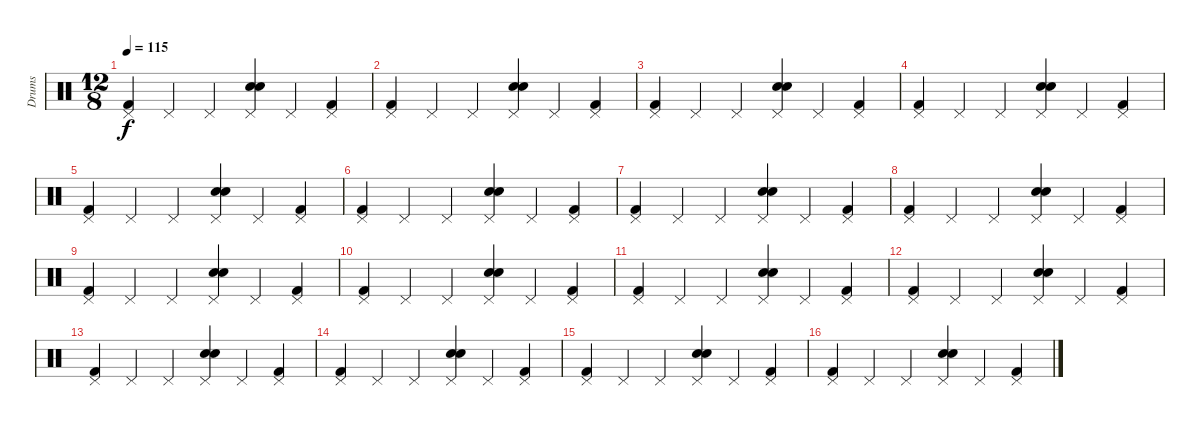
\track ("Drums" "Drums") {instrument percussion}
\staff {score}
\articulation defaults
\ts (12 8)
\tempo 115
\clef neutral
\ks c
("Kick (hit) 2" "Pedal Hi-Hat (hit)").4{dy f} "Pedal Hi-Hat (hit)".4 "Pedal Hi-Hat (hit)".4 ("Electric Snare (hit)" "Snare (hit) 2" "Pedal Hi-Hat (hit)").4 "Pedal Hi-Hat (hit)".4 ("Kick (hit) 2" "Pedal Hi-Hat (hit)").4 |
("Kick (hit) 2" "Pedal Hi-Hat (hit)").4 "Pedal Hi-Hat (hit)".4 "Pedal Hi-Hat (hit)".4 ("Electric Snare (hit)" "Snare (hit) 2" "Pedal Hi-Hat (hit)").4 "Pedal Hi-Hat (hit)".4 ("Kick (hit) 2" "Pedal Hi-Hat (hit)").4 |
("Kick (hit) 2" "Pedal Hi-Hat (hit)").4 "Pedal Hi-Hat (hit)".4 "Pedal Hi-Hat (hit)".4 ("Electric Snare (hit)" "Snare (hit) 2" "Pedal Hi-Hat (hit)").4 "Pedal Hi-Hat (hit)".4 ("Kick (hit) 2" "Pedal Hi-Hat (hit)").4 |
("Kick (hit) 2" "Pedal Hi-Hat (hit)").4 "Pedal Hi-Hat (hit)".4 "Pedal Hi-Hat (hit)".4 ("Electric Snare (hit)" "Snare (hit) 2" "Pedal Hi-Hat (hit)").4 "Pedal Hi-Hat (hit)".4 ("Kick (hit) 2" "Pedal Hi-Hat (hit)").4 |
("Kick (hit) 2" "Pedal Hi-Hat (hit)").4 "Pedal Hi-Hat (hit)".4 "Pedal Hi-Hat (hit)".4 ("Electric Snare (hit)" "Snare (hit) 2" "Pedal Hi-Hat (hit)").4 "Pedal Hi-Hat (hit)".4 ("Kick (hit) 2" "Pedal Hi-Hat (hit)").4 |
("Kick (hit) 2" "Pedal Hi-Hat (hit)").4 "Pedal Hi-Hat (hit)".4 "Pedal Hi-Hat (hit)".4 ("Electric Snare (hit)" "Snare (hit) 2" "Pedal Hi-Hat (hit)").4 "Pedal Hi-Hat (hit)".4 ("Kick (hit) 2" "Pedal Hi-Hat (hit)").4 |
("Kick (hit) 2" "Pedal Hi-Hat (hit)").4 "Pedal Hi-Hat (hit)".4 "Pedal Hi-Hat (hit)".4 ("Electric Snare (hit)" "Snare (hit) 2" "Pedal Hi-Hat (hit)").4 "Pedal Hi-Hat (hit)".4 ("Kick (hit) 2" "Pedal Hi-Hat (hit)").4 |
("Kick (hit) 2" "Pedal Hi-Hat (hit)").4 "Pedal Hi-Hat (hit)".4 "Pedal Hi-Hat (hit)".4 ("Electric Snare (hit)" "Snare (hit) 2" "Pedal Hi-Hat (hit)").4 "Pedal Hi-Hat (hit)".4 ("Kick (hit) 2" "Pedal Hi-Hat (hit)").4 |
("Kick (hit) 2" "Pedal Hi-Hat (hit)").4 "Pedal Hi-Hat (hit)".4 "Pedal Hi-Hat (hit)".4 ("Electric Snare (hit)" "Snare (hit) 2" "Pedal Hi-Hat (hit)").4 "Pedal Hi-Hat (hit)".4 ("Kick (hit) 2" "Pedal Hi-Hat (hit)").4 |
("Kick (hit) 2" "Pedal Hi-Hat (hit)").4 "Pedal Hi-Hat (hit)".4 "Pedal Hi-Hat (hit)".4 ("Electric Snare (hit)" "Snare (hit) 2" "Pedal Hi-Hat (hit)").4 "Pedal Hi-Hat (hit)".4 ("Kick (hit) 2" "Pedal Hi-Hat (hit)").4 |
("Kick (hit) 2" "Pedal Hi-Hat (hit)").4 "Pedal Hi-Hat (hit)".4 "Pedal Hi-Hat (hit)".4 ("Electric Snare (hit)" "Snare (hit) 2" "Pedal Hi-Hat (hit)").4 "Pedal Hi-Hat (hit)".4 ("Kick (hit) 2" "Pedal Hi-Hat (hit)").4 |
("Kick (hit) 2" "Pedal Hi-Hat (hit)").4 "Pedal Hi-Hat (hit)".4 "Pedal Hi-Hat (hit)".4 ("Electric Snare (hit)" "Snare (hit) 2" "Pedal Hi-Hat (hit)").4 "Pedal Hi-Hat (hit)".4 ("Kick (hit) 2" "Pedal Hi-Hat (hit)").4 |
("Kick (hit) 2" "Pedal Hi-Hat (hit)").4 "Pedal Hi-Hat (hit)".4 "Pedal Hi-Hat (hit)".4 ("Electric Snare (hit)" "Snare (hit) 2" "Pedal Hi-Hat (hit)").4 "Pedal Hi-Hat (hit)".4 ("Kick (hit) 2" "Pedal Hi-Hat (hit)").4 |
("Kick (hit) 2" "Pedal Hi-Hat (hit)").4 "Pedal Hi-Hat (hit)".4 "Pedal Hi-Hat (hit)".4 ("Electric Snare (hit)" "Snare (hit) 2" "Pedal Hi-Hat (hit)").4 "Pedal Hi-Hat (hit)".4 ("Kick (hit) 2" "Pedal Hi-Hat (hit)").4 |
("Kick (hit) 2" "Pedal Hi-Hat (hit)").4 "Pedal Hi-Hat (hit)".4 "Pedal Hi-Hat (hit)".4 ("Electric Snare (hit)" "Snare (hit) 2" "Pedal Hi-Hat (hit)").4 "Pedal Hi-Hat (hit)".4 ("Kick (hit) 2" "Pedal Hi-Hat (hit)").4 |
("Kick (hit) 2" "Pedal Hi-Hat (hit)").4 "Pedal Hi-Hat (hit)".4 "Pedal Hi-Hat (hit)".4 ("Electric Snare (hit)" "Snare (hit) 2" "Pedal Hi-Hat (hit)").4 "Pedal Hi-Hat (hit)".4 ("Kick (hit) 2" "Pedal Hi-Hat (hit)").4
